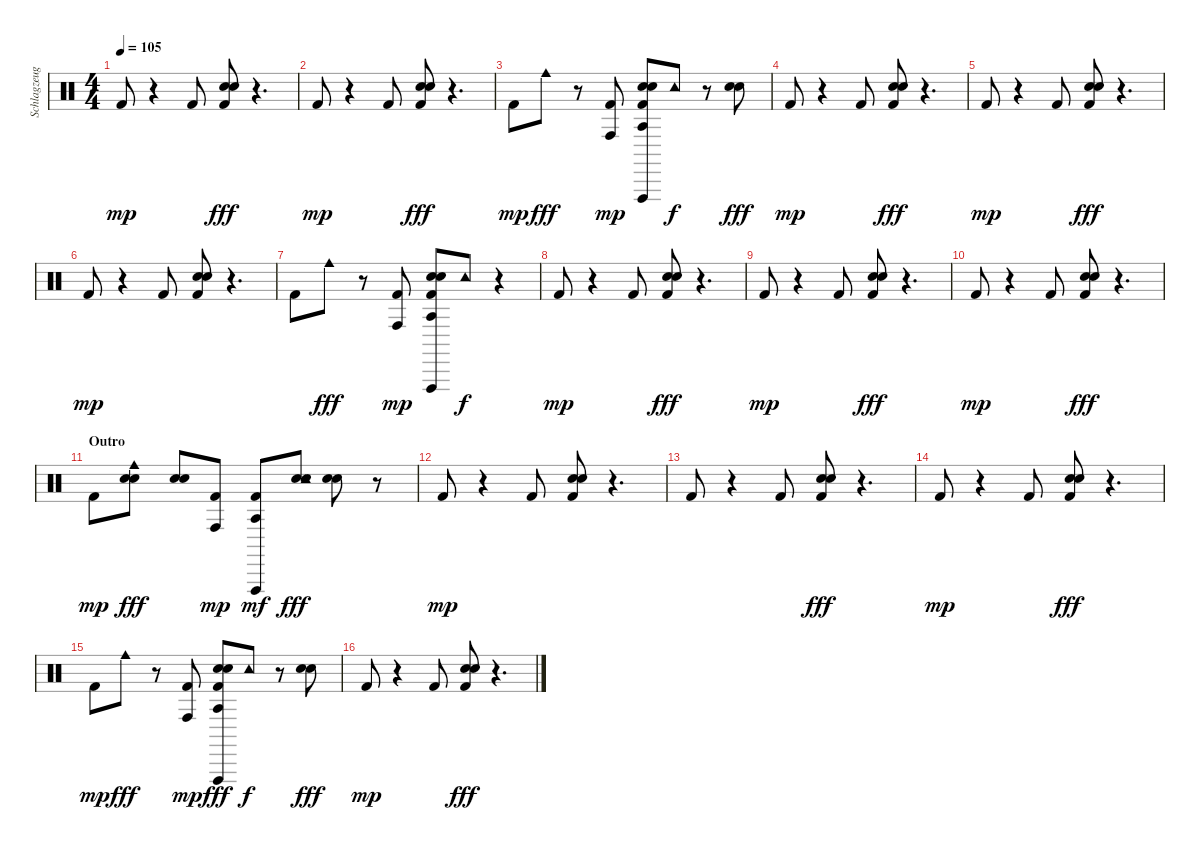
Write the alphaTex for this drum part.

\track ("Schlagzeug" "Schlagzeug") {instrument percussion}
\staff {score}
\articulation defaults
\ts (4 4)
\tempo 105
\clef neutral
\ks c "Kick (hit) 2".8{dy mp}
r.4 "Kick (hit) 2".8 ("Kick (hit) 2" "Snare (hit) 2" "Electric Snare (hit)").8{dy fff} r.4{d} |
"Kick (hit) 2".8{dy mp} r.4 "Kick (hit) 2".8 ("Kick (hit) 2" "Snare (hit) 2" "Electric Snare (hit)").8{dy fff} r.4{d} |
"Kick (hit) 2".8{dy mp} "Cowbell medium (hit)".8{dy fff} r.8 ("Kick (hit) 2" "Conga high (hit)").8{dy mp} ("Electric Snare (hit)" "Snare (hit) 2" "Agogo tow (hit)" "Kick (hit) 2" "Vibraslap (hit)").8 "Tambourine (hit)".8{dy f} r.8 ("Snare (hit) 2" "Electric Snare (hit)").8{dy fff} |
"Kick (hit) 2".8{dy mp} r.4 "Kick (hit) 2".8 ("Kick (hit) 2" "Snare (hit) 2" "Electric Snare (hit)").8{dy fff} r.4{d} |
"Kick (hit) 2".8{dy mp} r.4 "Kick (hit) 2".8 ("Kick (hit) 2" "Snare (hit) 2" "Electric Snare (hit)").8{dy fff} r.4{d} |
"Kick (hit) 2".8{dy mp} r.4 "Kick (hit) 2".8 ("Snare (hit) 2" "Electric Snare (hit)" "Kick (hit) 2").8 r.4{d} |
"Kick (hit) 2".8 "Cowbell medium (hit)".8{dy fff} r.8 ("Kick (hit) 2" "Conga high (hit)").8{dy mp} ("Snare (hit) 2" "Electric Snare (hit)" "Agogo tow (hit)" "Kick (hit) 2" "Vibraslap (hit)").8 "Tambourine (hit)".8{dy f} r.4 |
"Kick (hit) 2".8{dy mp} r.4 "Kick (hit) 2".8 ("Kick (hit) 2" "Snare (hit) 2" "Electric Snare (hit)").8{dy fff} r.4{d} |
"Kick (hit) 2".8{dy mp} r.4 "Kick (hit) 2".8 ("Kick (hit) 2" "Snare (hit) 2" "Electric Snare (hit)").8{dy fff} r.4{d} |
"Kick (hit) 2".8{dy mp} r.4 "Kick (hit) 2".8 ("Kick (hit) 2" "Snare (hit) 2" "Electric Snare (hit)").8{dy fff} r.4{d} |
\section ("" "Outro")
"Kick (hit) 2".8{dy mp} ("Snare (hit) 2" "Electric Snare (hit)" "Cowbell medium (hit)").8{dy fff} ("Snare (hit) 2" "Electric Snare (hit)").8 ("Kick (hit) 2" "Conga high (hit)").8{dy mp} ("Kick (hit) 2" "Vibraslap (hit)" "Agogo tow (hit)").8{dy mf} ("Snare (hit) 2" "Electric Snare (hit)" "Tambourine (hit)").8{dy fff} ("Snare (hit) 2" "Electric Snare (hit)").8 r.8 |
"Kick (hit) 2".8{dy mp} r.4 "Kick (hit) 2".8 ("Snare (hit) 2" "Electric Snare (hit)" "Kick (hit) 2").8 r.4{d} |
"Kick (hit) 2".8 r.4 "Kick (hit) 2".8 ("Kick (hit) 2" "Snare (hit) 2" "Electric Snare (hit)").8{dy fff} r.4{d} |
"Kick (hit) 2".8{dy mp} r.4 "Kick (hit) 2".8 ("Kick (hit) 2" "Snare (hit) 2" "Electric Snare (hit)").8{dy fff} r.4{d} |
"Kick (hit) 2".8{dy mp} "Cowbell medium (hit)".8{dy fff} r.8 ("Kick (hit) 2" "Conga high (hit)").8{dy mp} ("Kick (hit) 2" "Snare (hit) 2" "Vibraslap (hit)" "Agogo tow (hit)" "Electric Snare (hit)").8{dy fff} "Tambourine (hit)".8{dy f} r.8 ("Snare (hit) 2" "Electric Snare (hit)").8{dy fff} |
"Kick (hit) 2".8{dy mp} r.4 "Kick (hit) 2".8 ("Kick (hit) 2" "Snare (hit) 2" "Electric Snare (hit)").8{dy fff} r.4{d}
